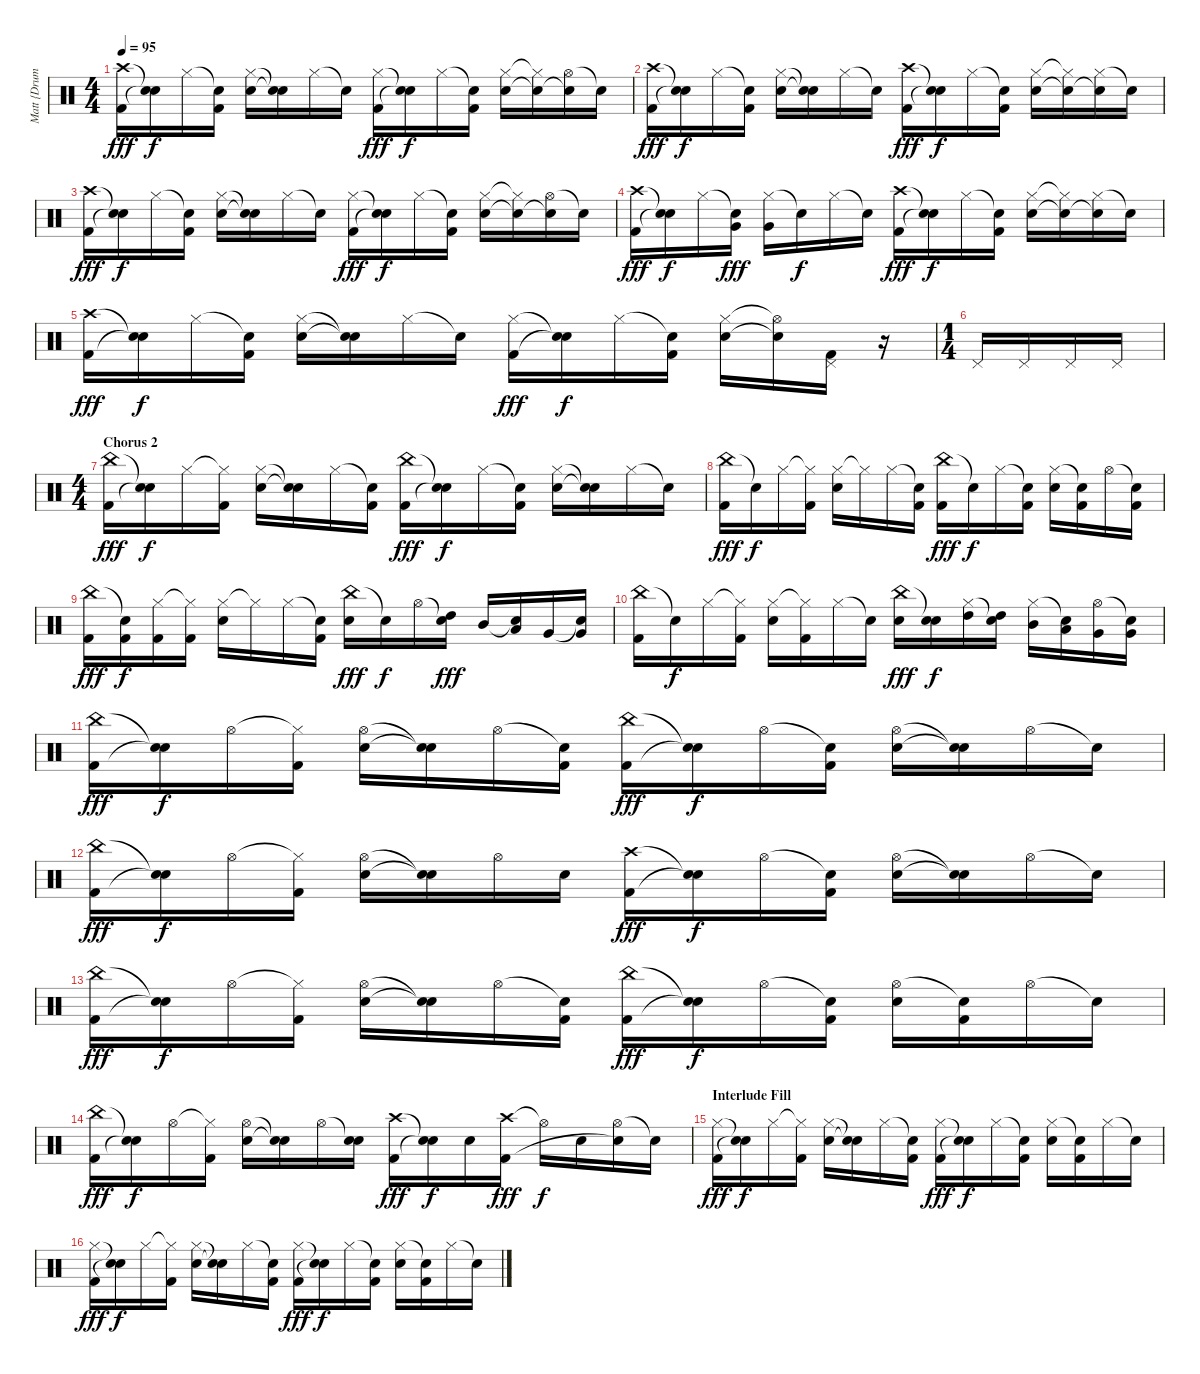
\track ("Matt {Drums}" "Matt {Drum") {instrument percussion}
\staff {score}
\articulation defaults
\ts (4 4)
\tempo 95
\clef neutral
\ks c
("Crash high (hit)" "Kick (hit) 2").16{dy fff} ("Snare (hit)"{t} "Snare (hit)"{t}).16{dy f} "Hi-Hat (closed)".16 ("Snare (hit)"{t} "Kick (hit) 2").16 ("Hi-Hat (closed)" "Electric Snare (hit)").16 ("Snare (hit)"{t} "Snare (hit)"{t}).16 "Hi-Hat (closed)".16 "Snare (hit)"{t}.16 ("Hi-Hat (closed)" "Kick (hit) 2").16{dy fff} ("Snare (hit)"{t} "Snare (hit)"{t}).16{dy f} "Hi-Hat (closed)".16 ("Snare (hit)"{t} "Kick (hit) 2").16 ("Hi-Hat (closed)" "Electric Snare (hit)").16 ("Hi-Hat (closed)"{t} "Snare (hit)"{t}).16 ("Hi-Hat (open)" "Snare (hit)"{t}).16 "Snare (hit)"{t}.16 |
("Crash high (hit)" "Kick (hit) 2").16{dy fff} ("Snare (hit)"{t} "Snare (hit)"{t}).16{dy f} "Hi-Hat (closed)".16 ("Snare (hit)"{t} "Kick (hit) 2").16 ("Hi-Hat (closed)" "Electric Snare (hit)").16 ("Snare (hit)"{t} "Snare (hit)"{t}).16 "Hi-Hat (closed)".16 "Snare (hit)"{t}.16 ("Crash high (hit)" "Kick (hit) 2").16{dy fff} ("Snare (hit)"{t} "Snare (hit)"{t}).16{dy f} "Hi-Hat (closed)".16 ("Snare (hit)"{t} "Kick (hit) 2").16 ("Hi-Hat (closed)" "Electric Snare (hit)").16 ("Hi-Hat (closed)"{t} "Snare (hit)"{t}).16 ("Hi-Hat (closed)" "Snare (hit)"{t}).16 "Snare (hit)"{t}.16 |
("Crash high (hit)" "Kick (hit) 2").16{dy fff} ("Snare (hit)"{t} "Snare (hit)"{t}).16{dy f} "Hi-Hat (closed)".16 ("Snare (hit)"{t} "Kick (hit) 2").16 ("Hi-Hat (closed)" "Electric Snare (hit)").16 ("Snare (hit)"{t} "Snare (hit)"{t}).16 "Hi-Hat (closed)".16 "Snare (hit)"{t}.16 ("Hi-Hat (closed)" "Kick (hit) 2").16{dy fff} ("Snare (hit)"{t} "Snare (hit)"{t}).16{dy f} "Hi-Hat (closed)".16 ("Snare (hit)"{t} "Kick (hit) 2").16 ("Hi-Hat (closed)" "Electric Snare (hit)").16 ("Hi-Hat (closed)"{t} "Snare (hit)"{t}).16 ("Hi-Hat (open)" "Snare (hit)"{t}).16 "Snare (hit)"{t}.16 |
("Crash high (hit)" "Kick (hit) 2").16{dy fff} ("Snare (hit)"{t} "Snare (hit)"{t}).16{dy f} "Hi-Hat (closed)".16 ("Snare (hit)"{t} "Very Low Tom (hit)").16{dy fff} ("Hi-Hat (closed)" "Very Low Tom (hit)").16 "Snare (hit)"{t}.16{dy f} "Hi-Hat (closed)".16 "Snare (hit)"{t}.16 ("Crash high (hit)" "Kick (hit) 2").16{dy fff} ("Snare (hit)"{t} "Snare (hit)"{t}).16{dy f} "Hi-Hat (closed)".16 ("Snare (hit)"{t} "Kick (hit) 2").16 ("Hi-Hat (closed)" "Electric Snare (hit)").16 ("Hi-Hat (closed)"{t} "Snare (hit)"{t}).16 ("Hi-Hat (closed)" "Snare (hit)"{t}).16 "Snare (hit)"{t}.16 |
("Crash high (hit)" "Kick (hit) 2").16{dy fff} ("Snare (hit)"{t} "Snare (hit)"{t}).16{dy f} "Hi-Hat (closed)".16 ("Snare (hit)"{t} "Kick (hit) 2").16 ("Hi-Hat (closed)" "Electric Snare (hit)").16 ("Snare (hit)"{t} "Snare (hit)"{t}).16 "Hi-Hat (closed)".16 "Snare (hit)"{t}.16 ("Hi-Hat (closed)" "Kick (hit) 2").16{dy fff} ("Snare (hit)"{t} "Snare (hit)"{t}).16{dy f} "Hi-Hat (closed)".16 ("Snare (hit)"{t} "Kick (hit) 2").16 ("Hi-Hat (closed)" "Electric Snare (hit)").16 ("Hi-Hat (open)"{t} "Snare (hit)"{t}).16 ("Pedal Hi-Hat (hit)" "Kick (hit) 2").16 r.16 |
\ts (1 4)
"Pedal Hi-Hat (hit)".16 "Pedal Hi-Hat (hit)".16 "Pedal Hi-Hat (hit)".16 "Pedal Hi-Hat (hit)".16 |
\ts (4 4)
\section ("" "Chorus 2")
("China (hit)" "Kick (hit) 2").16{dy fff} ("Snare (hit)"{t} "Snare (hit)"{t}).16{dy f} "Hi-Hat (closed)".16 ("Hi-Hat (closed)"{t} "Kick (hit) 2").16 ("Hi-Hat (closed)" "Electric Snare (hit)").16 ("Snare (hit)"{t} "Snare (hit)"{t}).16 "Hi-Hat (closed)".16 ("Snare (hit)"{t} "Kick (hit) 2").16 ("China (hit)" "Kick (hit) 2").16{dy fff} ("Snare (hit)"{t} "Snare (hit)"{t}).16{dy f} "Hi-Hat (closed)".16 ("Snare (hit)"{t} "Kick (hit) 2").16 ("Hi-Hat (closed)" "Electric Snare (hit)").16 ("Snare (hit)"{t} "Snare (hit)"{t}).16 "Hi-Hat (closed)".16 "Snare (hit)"{t}.16 |
("China (hit)" "Kick (hit) 2").16{dy fff} "Snare (hit)"{t}.16{dy f} "Hi-Hat (closed)".16 ("Hi-Hat (closed)"{t} "Kick (hit) 2").16 ("Hi-Hat (closed)" "Electric Snare (hit)").16 "Hi-Hat (closed)"{t}.16 "Hi-Hat (closed)".16 ("Snare (hit)"{t} "Kick (hit) 2").16 ("China (hit)" "Kick (hit) 2").16{dy fff} "Snare (hit)"{t}.16{dy f} "Hi-Hat (closed)".16 ("Snare (hit)"{t} "Kick (hit) 2").16 ("Hi-Hat (closed)" "Electric Snare (hit)").16 ("Snare (hit)"{t} "Kick (hit) 2").16 "Hi-Hat (open)".16 ("Snare (hit)"{t} "Kick (hit) 2").16 |
("China (hit)" "Kick (hit) 2").16{dy fff} ("Snare (hit)"{t} "Kick (hit) 2").16{dy f} ("Hi-Hat (closed)" "Kick (hit) 2").16 ("Hi-Hat (closed)"{t} "Kick (hit) 2").16 ("Hi-Hat (closed)" "Electric Snare (hit)").16 "Hi-Hat (closed)"{t}.16 "Hi-Hat (closed)".16 ("Snare (hit)"{t} "Kick (hit) 2").16 ("China (hit)" "Electric Snare (hit)").16{dy fff} "Snare (hit)"{t}.16{dy f} "Hi-Hat (open)".16 ("Snare (hit)"{t} "High Tom (hit)").16{dy fff} "Mid Tom (hit)".16 ("Snare (hit)"{t} "Low Tom (hit)").16 "Very Low Tom (hit)".16 ("Snare (hit)"{t} "Very Low Tom (hit)").16 |
("China (hit)" "Kick (hit) 2").16 "Snare (hit)"{t}.16{dy f} "Hi-Hat (closed)".16 ("Hi-Hat (closed)"{t} "Kick (hit) 2").16 ("Hi-Hat (closed)" "Electric Snare (hit)").16 ("Hi-Hat (closed)"{t} "Kick (hit) 2").16 "Hi-Hat (closed)".16 "Snare (hit)"{t}.16 ("China (hit)" "Electric Snare (hit)").16{dy fff} ("Snare (hit)"{t} "Electric Snare (hit)").16{dy f} ("Hi-Hat (closed)" "High Tom (hit)").16 ("Snare (hit)"{t} "High Tom (hit)").16 ("Hi-Hat (closed)" "Mid Tom (hit)").16 ("Snare (hit)"{t} "Low Tom (hit)").16 ("Hi-Hat (open)" "Very Low Tom (hit)").16 ("Snare (hit)"{t} "Very Low Tom (hit)").16 |
("China (hit)" "Kick (hit) 2").16{dy fff} ("Snare (hit)"{t} "Snare (hit)"{t}).16{dy f} "Hi-Hat (open)".16 ("Hi-Hat (closed)"{t} "Kick (hit) 2").16 ("Hi-Hat (open)" "Electric Snare (hit)").16 ("Snare (hit)"{t} "Snare (hit)"{t}).16 "Hi-Hat (open)".16 ("Snare (hit)"{t} "Kick (hit) 2").16 ("China (hit)" "Kick (hit) 2").16{dy fff} ("Snare (hit)"{t} "Snare (hit)"{t}).16{dy f} "Hi-Hat (open)".16 ("Snare (hit)"{t} "Kick (hit) 2").16 ("Hi-Hat (open)" "Electric Snare (hit)").16 ("Snare (hit)"{t} "Snare (hit)"{t}).16 "Hi-Hat (open)".16 "Snare (hit)"{t}.16 |
("China (hit)" "Kick (hit) 2").16{dy fff} ("Snare (hit)"{t} "Snare (hit)"{t}).16{dy f} "Hi-Hat (open)".16 ("Hi-Hat (closed)"{t} "Kick (hit) 2").16 ("Hi-Hat (open)" "Electric Snare (hit)").16 ("Snare (hit)"{t} "Snare (hit)"{t}).16 "Hi-Hat (open)".16 "Electric Snare (hit)".16 ("Crash high (hit)" "Kick (hit) 2").16{dy fff} ("Snare (hit)"{t} "Snare (hit)"{t}).16{dy f} "Hi-Hat (open)".16 ("Snare (hit)"{t} "Kick (hit) 2").16 ("Hi-Hat (open)" "Electric Snare (hit)").16 ("Snare (hit)"{t} "Snare (hit)"{t}).16 "Hi-Hat (open)".16 "Snare (hit)"{t}.16 |
("China (hit)" "Kick (hit) 2").16{dy fff} ("Snare (hit)"{t} "Snare (hit)"{t}).16{dy f} "Hi-Hat (open)".16 ("Hi-Hat (closed)"{t} "Kick (hit) 2").16 ("Hi-Hat (open)" "Electric Snare (hit)").16 ("Snare (hit)"{t} "Snare (hit)"{t}).16 "Hi-Hat (open)".16 ("Snare (hit)"{t} "Kick (hit) 2").16 ("China (hit)" "Kick (hit) 2").16{dy fff} ("Snare (hit)"{t} "Snare (hit)"{t}).16{dy f} "Hi-Hat (open)".16 ("Snare (hit)"{t} "Kick (hit) 2").16 ("Hi-Hat (open)" "Electric Snare (hit)").16 ("Snare (hit)"{t} "Kick (hit) 2").16 "Hi-Hat (open)".16 "Snare (hit)"{t}.16 |
("China (hit)" "Kick (hit) 2").16{dy fff} ("Snare (hit)"{t} "Snare (hit)"{t}).16{dy f} "Hi-Hat (open)".16 ("Hi-Hat (closed)"{t} "Kick (hit) 2").16 ("Hi-Hat (open)" "Electric Snare (hit)").16 ("Snare (hit)"{t} "Snare (hit)"{t}).16 "Hi-Hat (open)".16 ("Snare (hit)"{t} "Electric Snare (hit)").16 ("Crash high (hit)" "Kick (hit) 2").16{dy fff} ("Snare (hit)"{t} "Snare (hit)"{t}).16{dy f} "Electric Snare (hit)".16 ("Crash high (hit)" "Kick (hit) 2").16{dy fff} "Hi-Hat (open)"{t}.16{dy f} "Electric Snare (hit)".16 ("Hi-Hat (open)" "Snare (hit)"{t}).16 "Snare (hit)"{t}.16 |
\section ("" "Interlude Fill")
("Hi-Hat (closed)" "Kick (hit) 2").16{dy fff} ("Snare (hit)"{t} "Snare (hit)"{t}).16{dy f} "Hi-Hat (closed)".16 ("Hi-Hat (closed)"{t} "Kick (hit) 2").16 ("Hi-Hat (closed)" "Electric Snare (hit)").16 ("Snare (hit)"{t} "Snare (hit)"{t}).16 "Hi-Hat (closed)".16 ("Snare (hit)"{t} "Kick (hit) 2").16 ("Hi-Hat (closed)" "Kick (hit) 2").16{dy fff} ("Snare (hit)"{t} "Snare (hit)"{t}).16{dy f} "Hi-Hat (closed)".16 ("Snare (hit)"{t} "Kick (hit) 2").16 ("Hi-Hat (closed)" "Electric Snare (hit)").16 ("Snare (hit)"{t} "Kick (hit) 2").16 "Hi-Hat (closed)".16 "Snare (hit)"{t}.16 |
("Hi-Hat (closed)" "Kick (hit) 2").16{dy fff} ("Snare (hit)"{t} "Snare (hit)"{t}).16{dy f} "Hi-Hat (closed)".16 ("Hi-Hat (closed)"{t} "Kick (hit) 2").16 ("Hi-Hat (closed)" "Electric Snare (hit)").16 ("Snare (hit)"{t} "Snare (hit)"{t}).16 "Hi-Hat (closed)".16 ("Snare (hit)"{t} "Kick (hit) 2").16 ("Hi-Hat (closed)" "Kick (hit) 2").16{dy fff} ("Snare (hit)"{t} "Snare (hit)"{t}).16{dy f} "Hi-Hat (closed)".16 ("Snare (hit)"{t} "Kick (hit) 2").16 ("Hi-Hat (closed)" "Electric Snare (hit)").16 ("Snare (hit)"{t} "Kick (hit) 2").16 "Hi-Hat (closed)".16 "Snare (hit)"{t}.16
